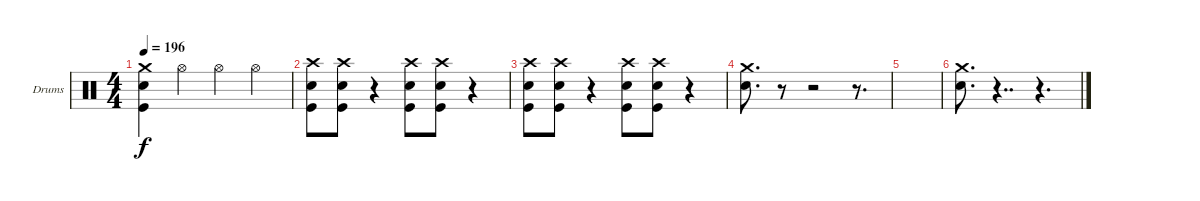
\defaultSystemsLayout 4
\bracketExtendMode groupsimilarinstruments
\firstSystemTrackNameOrientation horizontal
\otherSystemsTrackNameOrientation horizontal
\track ("Lars Ulrich (Drum)" "Drums") {instrument percussion}
\staff {score}
\articulation defaults
\ts (4 4)
\tempo 196
\clef neutral
\scale
0.333333
\ks c
("Crash medium (hit)" "Snare (hit) 2" "Kick (hit)").4{dy f} "Hi-Hat (open)".4 "Hi-Hat (open)".4 "Hi-Hat (open)".4 |
\scale
0.333333 ("Crash high (hit)" "Snare (hit) 2" "Kick (hit)").8 ("Crash high (hit)" "Snare (hit) 2" "Kick (hit)").8 r.4 ("Crash high (hit)" "Snare (hit) 2" "Kick (hit)").8 ("Crash high (hit)" "Snare (hit) 2" "Kick (hit)").8 r.4 |
\scale
0.333333 ("Crash high (hit)" "Snare (hit) 2" "Kick (hit)").8 ("Crash high (hit)" "Snare (hit) 2" "Kick (hit)").8 r.4 ("Crash high (hit)" "Snare (hit) 2" "Kick (hit)").8 ("Crash high (hit)" "Snare (hit) 2" "Kick (hit)").8 r.4 |
\scale
0.333333 ("Crash medium (hit)" "Snare (hit) 2").8{d} r.8 r.2 r.8{d} |
\scale
0.333333 |
("Crash medium (hit)" "Snare (hit) 2").8{d} r.4{dd} r.4{d}
